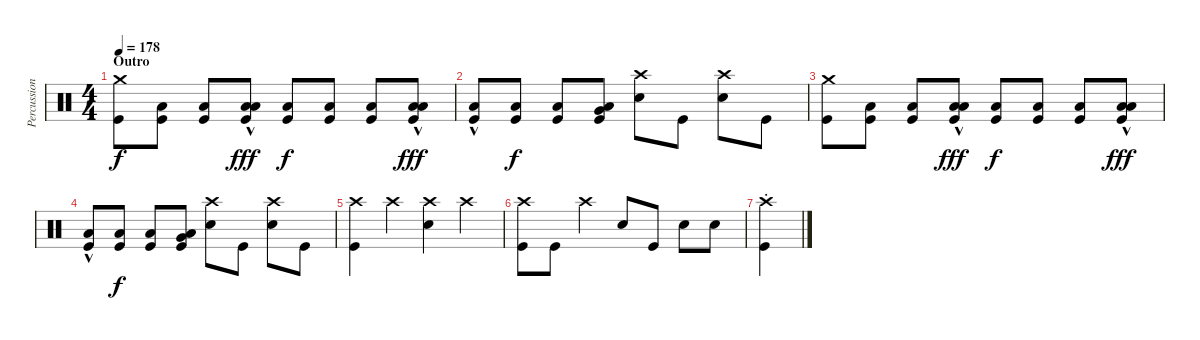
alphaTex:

\track ("Percussion" "Percussion") {instrument percussion}
\staff {score}
\articulation defaults
\ts (4 4)
\section ("" "Outro")
\tempo 178
\clef neutral
\ks c
("Crash medium (hit)" "Kick (hit)").8{dy f} ("Low Floor Tom (hit)" "Kick (hit)").8 ("Low Floor Tom (hit)" "Kick (hit)").8 ("Low Tom (hit)"{hac} "Low Floor Tom (hit)"{hac} "Kick (hit)").8{dy fff} ("Low Floor Tom (hit)" "Kick (hit)").8{dy f} ("Low Floor Tom (hit)" "Kick (hit)").8 ("Low Floor Tom (hit)" "Kick (hit)").8 ("Low Tom (hit)"{hac} "Low Floor Tom (hit)"{hac} "Kick (hit)").8{dy fff} |
("Low Floor Tom (hit)"{hac} "Kick (hit)").8 ("Low Floor Tom (hit)" "Kick (hit)").8{dy f} ("Low Floor Tom (hit)" "Kick (hit)").8 ("Very Low Tom (hit)" "Low Floor Tom (hit)" "Kick (hit)").8 ("Crash high (hit)" "Snare (hit) 2").8 "Kick (hit)".8 ("Crash high (hit)" "Snare (hit) 2").8 "Kick (hit)".8 |
("Crash medium (hit)" "Kick (hit)").8 ("Low Floor Tom (hit)" "Kick (hit)").8 ("Low Floor Tom (hit)" "Kick (hit)").8 ("Low Tom (hit)"{hac} "Low Floor Tom (hit)"{hac} "Kick (hit)").8{dy fff} ("Low Floor Tom (hit)" "Kick (hit)").8{dy f} ("Low Floor Tom (hit)" "Kick (hit)").8 ("Low Floor Tom (hit)" "Kick (hit)").8 ("Low Tom (hit)"{hac} "Low Floor Tom (hit)"{hac} "Kick (hit)").8{dy fff} |
("Low Floor Tom (hit)"{hac} "Kick (hit)").8 ("Low Floor Tom (hit)" "Kick (hit)").8{dy f} ("Low Floor Tom (hit)" "Kick (hit)").8 ("Very Low Tom (hit)" "Low Floor Tom (hit)" "Kick (hit)").8 ("Crash high (hit)" "Snare (hit) 2").8 "Kick (hit)".8 ("Crash high (hit)" "Snare (hit) 2").8 "Kick (hit)".8 |
("Crash high (hit)" "Kick (hit)").4 "Crash high (hit)".4 ("Crash high (hit)" "Snare (hit) 2").4 "Crash high (hit)".4 |
("Crash high (hit)" "Kick (hit)").8 "Kick (hit)".8 "Crash high (hit)".4 "Snare (hit) 2".8 "Kick (hit)".8 "Snare (hit) 2".8 "Snare (hit) 2".8 |
("Crash high (hit)"{st} "Kick (hit)"{st}).4
